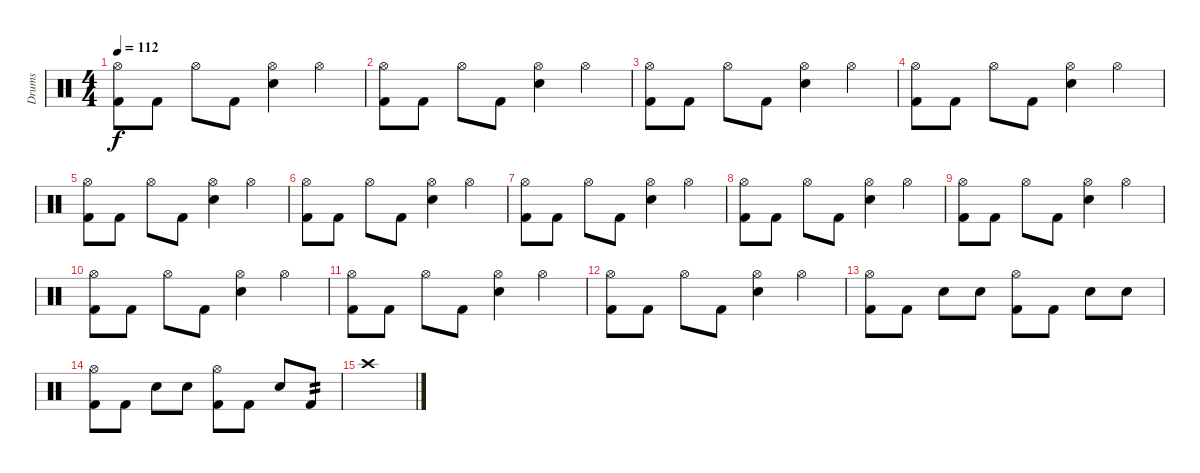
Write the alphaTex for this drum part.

\track ("Drums" "Drums") {instrument percussion}
\staff {score}
\articulation defaults
\ts (4 4)
\tempo 112
\clef neutral
\ks c
("Kick (hit) 2" "Hi-Hat (open)").8{dy f} "Kick (hit) 2".8 "Hi-Hat (open)".8 "Kick (hit) 2".8 ("Electric Snare (hit)" "Hi-Hat (open)").4 "Hi-Hat (open)".4 |
("Kick (hit) 2" "Hi-Hat (open)").8 "Kick (hit) 2".8 "Hi-Hat (open)".8 "Kick (hit) 2".8 ("Electric Snare (hit)" "Hi-Hat (open)").4 "Hi-Hat (open)".4 |
("Kick (hit) 2" "Hi-Hat (open)").8 "Kick (hit) 2".8 "Hi-Hat (open)".8 "Kick (hit) 2".8 ("Electric Snare (hit)" "Hi-Hat (open)").4 "Hi-Hat (open)".4 |
("Kick (hit) 2" "Hi-Hat (open)").8 "Kick (hit) 2".8 "Hi-Hat (open)".8 "Kick (hit) 2".8 ("Electric Snare (hit)" "Hi-Hat (open)").4 "Hi-Hat (open)".4 |
("Kick (hit) 2" "Hi-Hat (open)").8 "Kick (hit) 2".8 "Hi-Hat (open)".8 "Kick (hit) 2".8 ("Electric Snare (hit)" "Hi-Hat (open)").4 "Hi-Hat (open)".4 |
("Kick (hit) 2" "Hi-Hat (open)").8 "Kick (hit) 2".8 "Hi-Hat (open)".8 "Kick (hit) 2".8 ("Electric Snare (hit)" "Hi-Hat (open)").4 "Hi-Hat (open)".4 |
("Kick (hit) 2" "Hi-Hat (open)").8 "Kick (hit) 2".8 "Hi-Hat (open)".8 "Kick (hit) 2".8 ("Electric Snare (hit)" "Hi-Hat (open)").4 "Hi-Hat (open)".4 |
("Kick (hit) 2" "Hi-Hat (open)").8 "Kick (hit) 2".8 "Hi-Hat (open)".8 "Kick (hit) 2".8 ("Electric Snare (hit)" "Hi-Hat (open)").4 "Hi-Hat (open)".4 |
("Kick (hit) 2" "Hi-Hat (open)").8 "Kick (hit) 2".8 "Hi-Hat (open)".8 "Kick (hit) 2".8 ("Electric Snare (hit)" "Hi-Hat (open)").4 "Hi-Hat (open)".4 |
("Kick (hit) 2" "Hi-Hat (open)").8 "Kick (hit) 2".8 "Hi-Hat (open)".8 "Kick (hit) 2".8 ("Electric Snare (hit)" "Hi-Hat (open)").4 "Hi-Hat (open)".4 |
("Kick (hit) 2" "Hi-Hat (open)").8 "Kick (hit) 2".8 "Hi-Hat (open)".8 "Kick (hit) 2".8 ("Electric Snare (hit)" "Hi-Hat (open)").4 "Hi-Hat (open)".4 |
("Kick (hit) 2" "Hi-Hat (open)").8 "Kick (hit) 2".8 "Hi-Hat (open)".8 "Kick (hit) 2".8 ("Electric Snare (hit)" "Hi-Hat (open)").4 "Hi-Hat (open)".4 |
("Kick (hit) 2" "Hi-Hat (open)").8 "Kick (hit) 2".8 "Snare (hit) 2".8 "Snare (hit) 2".8 ("Kick (hit) 2" "Hi-Hat (open)").8 "Kick (hit) 2".8 "Snare (hit) 2".8 "Snare (hit) 2".8 |
("Kick (hit) 2" "Hi-Hat (open)").8 "Kick (hit) 2".8 "Snare (hit) 2".8 "Snare (hit) 2".8 ("Kick (hit) 2" "Hi-Hat (open)").8 "Kick (hit) 2".8 "Snare (hit) 2".8 "Kick (hit) 2".8{tp 2} |
"Crash high (hit)".1
